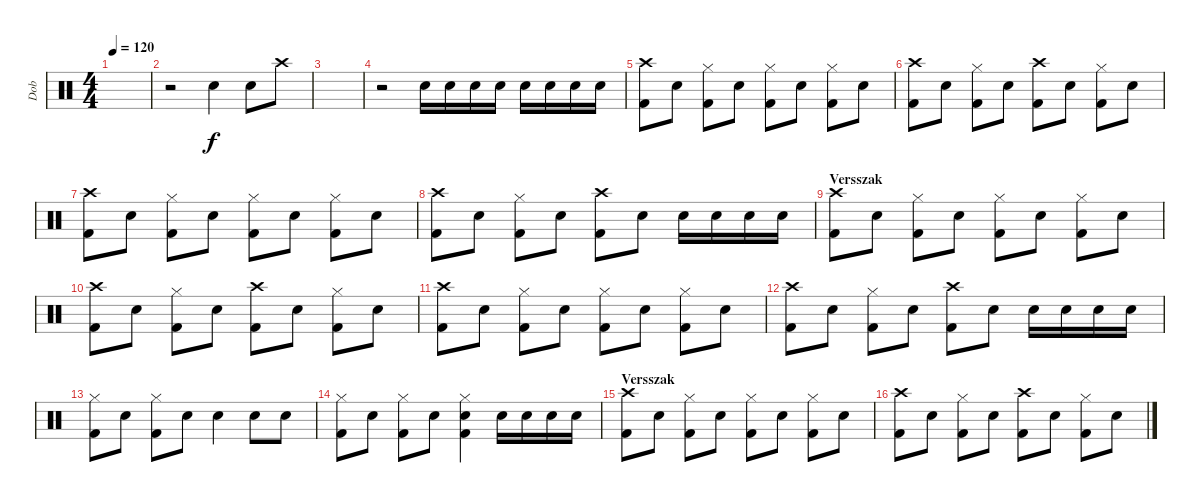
\track ("Dob" "Dob") {instrument percussion}
\staff {score}
\articulation defaults
\ts (4 4)
\tempo 120
\clef neutral
\ks c
|
r.2 "Snare (hit) 2".4 "Electric Snare (hit)".8 "Crash high (hit)".8 |
|
r.2 "Snare (hit) 2".16 "Snare (hit) 2".16 "Snare (hit) 2".16 "Snare (hit) 2".16 "Electric Snare (hit)".16 "Electric Snare (hit)".16 "Electric Snare (hit)".16 "Electric Snare (hit)".16 |
("Kick (hit) 2" "Crash high (hit)").8 "Snare (hit) 2".8 ("Kick (hit) 2" "Hi-Hat (closed)").8 "Snare (hit) 2".8 ("Kick (hit) 2" "Hi-Hat (closed)").8 "Snare (hit) 2".8 ("Kick (hit) 2" "Hi-Hat (closed)").8 "Snare (hit) 2".8 |
("Kick (hit) 2" "Crash high (hit)").8 "Snare (hit) 2".8 ("Kick (hit) 2" "Hi-Hat (closed)").8 "Snare (hit) 2".8 ("Kick (hit) 2" "Crash high (hit)").8 "Snare (hit) 2".8 ("Kick (hit) 2" "Hi-Hat (closed)").8 "Snare (hit) 2".8 |
("Kick (hit) 2" "Crash high (hit)").8 "Snare (hit) 2".8 ("Kick (hit) 2" "Hi-Hat (closed)").8 "Snare (hit) 2".8 ("Kick (hit) 2" "Hi-Hat (closed)").8 "Snare (hit) 2".8 ("Kick (hit) 2" "Hi-Hat (closed)").8 "Snare (hit) 2".8 |
("Kick (hit) 2" "Crash high (hit)").8 "Snare (hit) 2".8 ("Kick (hit) 2" "Hi-Hat (closed)").8 "Snare (hit) 2".8 ("Kick (hit) 2" "Crash high (hit)").8 "Snare (hit) 2".8 "Snare (hit) 2".16 "Snare (hit) 2".16 "Snare (hit) 2".16 "Snare (hit) 2".16 |
\section ("" "Versszak")
("Kick (hit) 2" "Crash high (hit)").8 "Snare (hit) 2".8 ("Kick (hit) 2" "Hi-Hat (closed)").8 "Snare (hit) 2".8 ("Kick (hit) 2" "Hi-Hat (closed)").8 "Snare (hit) 2".8 ("Kick (hit) 2" "Hi-Hat (closed)").8 "Snare (hit) 2".8 |
("Kick (hit) 2" "Crash high (hit)").8 "Snare (hit) 2".8 ("Kick (hit) 2" "Hi-Hat (closed)").8 "Snare (hit) 2".8 ("Kick (hit) 2" "Crash high (hit)").8 "Snare (hit) 2".8 ("Kick (hit) 2" "Hi-Hat (closed)").8 "Snare (hit) 2".8 |
("Kick (hit) 2" "Crash high (hit)").8 "Snare (hit) 2".8 ("Kick (hit) 2" "Hi-Hat (closed)").8 "Snare (hit) 2".8 ("Kick (hit) 2" "Hi-Hat (closed)").8 "Snare (hit) 2".8 ("Kick (hit) 2" "Hi-Hat (closed)").8 "Snare (hit) 2".8 |
("Kick (hit) 2" "Crash high (hit)").8 "Snare (hit) 2".8 ("Kick (hit) 2" "Hi-Hat (closed)").8 "Snare (hit) 2".8 ("Kick (hit) 2" "Crash high (hit)").8 "Snare (hit) 2".8 "Snare (hit) 2".16 "Snare (hit) 2".16 "Snare (hit) 2".16 "Snare (hit) 2".16 |
("Kick (hit) 2" "Hi-Hat (closed)").8 "Snare (hit) 2".8 ("Kick (hit) 2" "Hi-Hat (closed)").8 "Snare (hit) 2".8 "Snare (hit) 2".4 "Electric Snare (hit)".8 "Electric Snare (hit)".8 |
("Kick (hit) 2" "Hi-Hat (closed)").8 "Snare (hit) 2".8 ("Kick (hit) 2" "Hi-Hat (closed)").8 "Snare (hit) 2".8 ("Snare (hit) 2" "Hi-Hat (closed)" "Kick (hit) 2").4 "Snare (hit) 2".16 "Snare (hit) 2".16 "Snare (hit) 2".16 "Snare (hit) 2".16 |
\section ("" "Versszak")
("Kick (hit) 2" "Crash high (hit)").8 "Snare (hit) 2".8 ("Kick (hit) 2" "Hi-Hat (closed)").8 "Snare (hit) 2".8 ("Kick (hit) 2" "Hi-Hat (closed)").8 "Snare (hit) 2".8 ("Kick (hit) 2" "Hi-Hat (closed)").8 "Snare (hit) 2".8 |
("Kick (hit) 2" "Crash high (hit)").8 "Snare (hit) 2".8 ("Kick (hit) 2" "Hi-Hat (closed)").8 "Snare (hit) 2".8 ("Kick (hit) 2" "Crash high (hit)").8 "Snare (hit) 2".8 ("Kick (hit) 2" "Hi-Hat (closed)").8 "Snare (hit) 2".8
